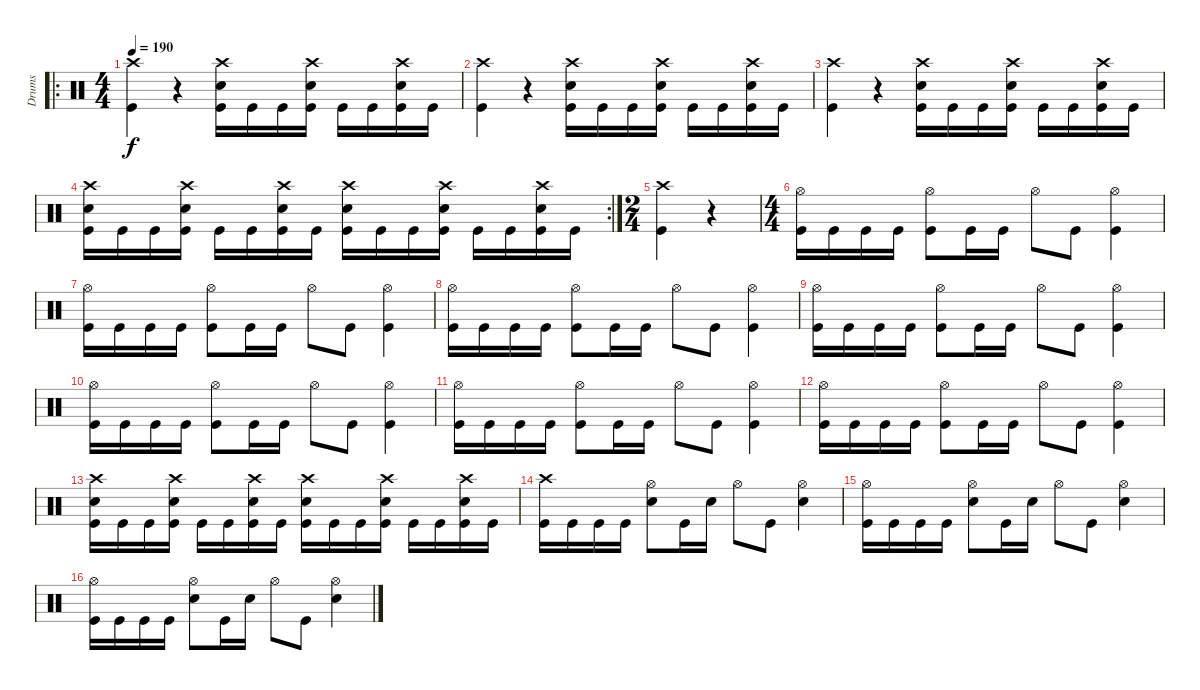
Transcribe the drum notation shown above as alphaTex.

\track ("Drums" "Drums") {instrument percussion}
\staff {score}
\articulation defaults
\ro
\ts (4 4)
\tempo 190
\clef neutral
\ks c
("Crash high (hit)" "Kick (hit)").4{dy f} r.4{volume 6} ("Crash high (hit)" "Electric Snare (hit)" "Kick (hit)").16{volume 16} "Kick (hit)".16 "Kick (hit)".16 ("Crash high (hit)" "Electric Snare (hit)" "Kick (hit)").16 "Kick (hit)".16 "Kick (hit)".16 ("Crash high (hit)" "Electric Snare (hit)" "Kick (hit)").16 "Kick (hit)".16 |
("Crash high (hit)" "Kick (hit)").4 r.4{volume 6} ("Crash high (hit)" "Electric Snare (hit)" "Kick (hit)").16{volume 16} "Kick (hit)".16 "Kick (hit)".16 ("Crash high (hit)" "Electric Snare (hit)" "Kick (hit)").16 "Kick (hit)".16 "Kick (hit)".16 ("Crash high (hit)" "Electric Snare (hit)" "Kick (hit)").16 "Kick (hit)".16 |
("Crash high (hit)" "Kick (hit)").4 r.4{volume 6} ("Crash high (hit)" "Electric Snare (hit)" "Kick (hit)").16{volume 16} "Kick (hit)".16 "Kick (hit)".16 ("Crash high (hit)" "Electric Snare (hit)" "Kick (hit)").16 "Kick (hit)".16 "Kick (hit)".16 ("Crash high (hit)" "Electric Snare (hit)" "Kick (hit)").16 "Kick (hit)".16 |
\rc 2
("Crash high (hit)" "Electric Snare (hit)" "Kick (hit)").16 "Kick (hit)".16 "Kick (hit)".16 ("Crash high (hit)" "Electric Snare (hit)" "Kick (hit)").16 "Kick (hit)".16 "Kick (hit)".16 ("Crash high (hit)" "Electric Snare (hit)" "Kick (hit)").16 "Kick (hit)".16 ("Crash high (hit)" "Electric Snare (hit)" "Kick (hit)").16 "Kick (hit)".16 "Kick (hit)".16 ("Crash high (hit)" "Electric Snare (hit)" "Kick (hit)").16 "Kick (hit)".16 "Kick (hit)".16 ("Crash high (hit)" "Electric Snare (hit)" "Kick (hit)").16 "Kick (hit)".16 |
\ts (2 4)
("Crash high (hit)" "Kick (hit)").4 r.4{volume 6} |
\ts (4 4)
("Hi-Hat (open)" "Kick (hit)").16{volume 16} "Kick (hit)".16 "Kick (hit)".16 "Kick (hit)".16 ("Hi-Hat (open)" "Kick (hit)").8 "Kick (hit)".16 "Kick (hit)".16 "Hi-Hat (open)".8 "Kick (hit)".8 ("Hi-Hat (open)" "Kick (hit)").4 |
("Hi-Hat (open)" "Kick (hit)").16 "Kick (hit)".16 "Kick (hit)".16 "Kick (hit)".16 ("Hi-Hat (open)" "Kick (hit)").8 "Kick (hit)".16 "Kick (hit)".16 "Hi-Hat (open)".8 "Kick (hit)".8 ("Hi-Hat (open)" "Kick (hit)").4 |
("Hi-Hat (open)" "Kick (hit)").16 "Kick (hit)".16 "Kick (hit)".16 "Kick (hit)".16 ("Hi-Hat (open)" "Kick (hit)").8 "Kick (hit)".16 "Kick (hit)".16 "Hi-Hat (open)".8 "Kick (hit)".8 ("Hi-Hat (open)" "Kick (hit)").4 |
("Hi-Hat (open)" "Kick (hit)").16 "Kick (hit)".16 "Kick (hit)".16 "Kick (hit)".16 ("Hi-Hat (open)" "Kick (hit)").8 "Kick (hit)".16 "Kick (hit)".16 "Hi-Hat (open)".8 "Kick (hit)".8 ("Hi-Hat (open)" "Kick (hit)").4 |
("Hi-Hat (open)" "Kick (hit)").16 "Kick (hit)".16 "Kick (hit)".16 "Kick (hit)".16 ("Hi-Hat (open)" "Kick (hit)").8 "Kick (hit)".16 "Kick (hit)".16 "Hi-Hat (open)".8 "Kick (hit)".8 ("Hi-Hat (open)" "Kick (hit)").4 |
("Hi-Hat (open)" "Kick (hit)").16 "Kick (hit)".16 "Kick (hit)".16 "Kick (hit)".16 ("Hi-Hat (open)" "Kick (hit)").8 "Kick (hit)".16 "Kick (hit)".16 "Hi-Hat (open)".8 "Kick (hit)".8 ("Hi-Hat (open)" "Kick (hit)").4 |
("Hi-Hat (open)" "Kick (hit)").16 "Kick (hit)".16 "Kick (hit)".16 "Kick (hit)".16 ("Hi-Hat (open)" "Kick (hit)").8 "Kick (hit)".16 "Kick (hit)".16 "Hi-Hat (open)".8 "Kick (hit)".8 ("Hi-Hat (open)" "Kick (hit)").4 |
("Crash high (hit)" "Electric Snare (hit)" "Kick (hit)").16 "Kick (hit)".16 "Kick (hit)".16 ("Crash high (hit)" "Electric Snare (hit)" "Kick (hit)").16 "Kick (hit)".16 "Kick (hit)".16 ("Crash high (hit)" "Electric Snare (hit)" "Kick (hit)").16 "Kick (hit)".16 ("Crash high (hit)" "Electric Snare (hit)" "Kick (hit)").16 "Kick (hit)".16 "Kick (hit)".16 ("Crash high (hit)" "Electric Snare (hit)" "Kick (hit)").16 "Kick (hit)".16 "Kick (hit)".16 ("Crash high (hit)" "Electric Snare (hit)" "Kick (hit)").16 "Kick (hit)".16 |
("Crash high (hit)" "Kick (hit)").16 "Kick (hit)".16 "Kick (hit)".16 "Kick (hit)".16 ("Hi-Hat (open)" "Electric Snare (hit)").8 "Kick (hit)".16 "Electric Snare (hit)".16 "Hi-Hat (open)".8 "Kick (hit)".8 ("Hi-Hat (open)" "Electric Snare (hit)").4 |
("Hi-Hat (open)" "Kick (hit)").16 "Kick (hit)".16 "Kick (hit)".16 "Kick (hit)".16 ("Hi-Hat (open)" "Electric Snare (hit)").8 "Kick (hit)".16 "Electric Snare (hit)".16 "Hi-Hat (open)".8 "Kick (hit)".8 ("Hi-Hat (open)" "Electric Snare (hit)").4 |
("Hi-Hat (open)" "Kick (hit)").16 "Kick (hit)".16 "Kick (hit)".16 "Kick (hit)".16 ("Hi-Hat (open)" "Electric Snare (hit)").8 "Kick (hit)".16 "Electric Snare (hit)".16 "Hi-Hat (open)".8 "Kick (hit)".8 ("Hi-Hat (open)" "Electric Snare (hit)").4
